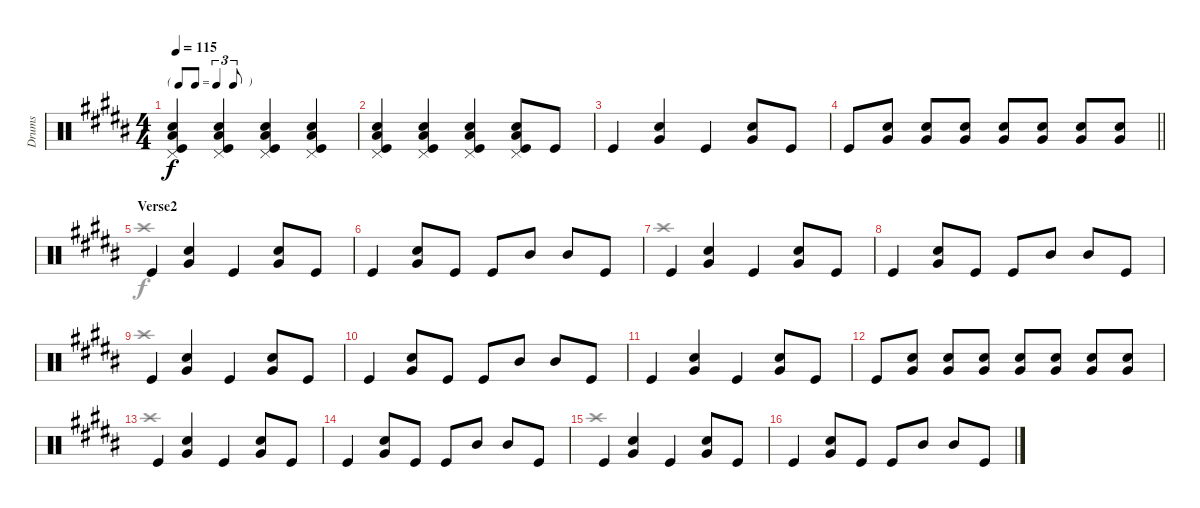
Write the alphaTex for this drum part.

\track ("Drums" "Drums") {instrument percussion}
\staff {score}
\articulation defaults
\voice
\ts (4 4)
\tf triplet8th
\tempo 115
\clef neutral
\ks b
("Snare (hit) 2" "Low Floor Tom (hit)" "Pedal Hi-Hat (hit)" "Kick (hit)").4{dy f} ("Snare (hit) 2" "Low Floor Tom (hit)" "Pedal Hi-Hat (hit)" "Kick (hit)").4 ("Snare (hit) 2" "Low Floor Tom (hit)" "Pedal Hi-Hat (hit)" "Kick (hit)").4 ("Snare (hit) 2" "Low Floor Tom (hit)" "Pedal Hi-Hat (hit)" "Kick (hit)").4 |
("Snare (hit) 2" "Low Floor Tom (hit)" "Pedal Hi-Hat (hit)" "Kick (hit)").4 ("Snare (hit) 2" "Low Floor Tom (hit)" "Pedal Hi-Hat (hit)" "Kick (hit)").4 ("Snare (hit) 2" "Low Floor Tom (hit)" "Pedal Hi-Hat (hit)" "Kick (hit)").4 ("Snare (hit) 2" "Low Floor Tom (hit)" "Pedal Hi-Hat (hit)" "Kick (hit)").8 "Kick (hit)".8 |
"Kick (hit)".4 ("Snare (hit) 2" "Very Low Tom (hit)").4 "Kick (hit)".4 ("Snare (hit) 2" "Very Low Tom (hit)").8 "Kick (hit)".8 |
\barLineRight lightlight "Kick (hit)".8
("Snare (hit) 2" "Very Low Tom (hit)").8 ("Snare (hit) 2" "Very Low Tom (hit)").8 ("Snare (hit) 2" "Very Low Tom (hit)").8 ("Snare (hit) 2" "Very Low Tom (hit)").8 ("Snare (hit) 2" "Very Low Tom (hit)").8 ("Snare (hit) 2" "Very Low Tom (hit)").8 ("Snare (hit) 2" "Very Low Tom (hit)").8 |
\section ("" "Verse2")
"Kick (hit)".4 ("Snare (hit) 2" "Very Low Tom (hit)").4 "Kick (hit)".4 ("Snare (hit) 2" "Very Low Tom (hit)").8 "Kick (hit)".8 |
"Kick (hit)".4 ("Snare (hit) 2" "Very Low Tom (hit)").8 "Kick (hit)".8 "Kick (hit)".8 "Mid Tom (hit)".8 "Mid Tom (hit)".8 "Kick (hit)".8 |
"Kick (hit)".4 ("Snare (hit) 2" "Very Low Tom (hit)").4 "Kick (hit)".4 ("Snare (hit) 2" "Very Low Tom (hit)").8 "Kick (hit)".8 |
"Kick (hit)".4 ("Snare (hit) 2" "Very Low Tom (hit)").8 "Kick (hit)".8 "Kick (hit)".8 "Mid Tom (hit)".8 "Mid Tom (hit)".8 "Kick (hit)".8 |
"Kick (hit)".4 ("Snare (hit) 2" "Very Low Tom (hit)").4 "Kick (hit)".4 ("Snare (hit) 2" "Very Low Tom (hit)").8 "Kick (hit)".8 |
"Kick (hit)".4 ("Snare (hit) 2" "Very Low Tom (hit)").8 "Kick (hit)".8 "Kick (hit)".8 "Mid Tom (hit)".8 "Mid Tom (hit)".8 "Kick (hit)".8 |
"Kick (hit)".4 ("Snare (hit) 2" "Very Low Tom (hit)").4 "Kick (hit)".4 ("Snare (hit) 2" "Very Low Tom (hit)").8 "Kick (hit)".8 |
"Kick (hit)".8 ("Snare (hit) 2" "Very Low Tom (hit)").8 ("Snare (hit) 2" "Very Low Tom (hit)").8 ("Snare (hit) 2" "Very Low Tom (hit)").8 ("Snare (hit) 2" "Very Low Tom (hit)").8 ("Snare (hit) 2" "Very Low Tom (hit)").8 ("Snare (hit) 2" "Very Low Tom (hit)").8 ("Snare (hit) 2" "Very Low Tom (hit)").8 |
"Kick (hit)".4 ("Snare (hit) 2" "Very Low Tom (hit)").4 "Kick (hit)".4 ("Snare (hit) 2" "Very Low Tom (hit)").8 "Kick (hit)".8 |
"Kick (hit)".4 ("Snare (hit) 2" "Very Low Tom (hit)").8 "Kick (hit)".8 "Kick (hit)".8 "Mid Tom (hit)".8 "Mid Tom (hit)".8 "Kick (hit)".8 |
"Kick (hit)".4 ("Snare (hit) 2" "Very Low Tom (hit)").4 "Kick (hit)".4 ("Snare (hit) 2" "Very Low Tom (hit)").8 "Kick (hit)".8 |
"Kick (hit)".4 ("Snare (hit) 2" "Very Low Tom (hit)").8 "Kick (hit)".8 "Kick (hit)".8 "Mid Tom (hit)".8 "Mid Tom (hit)".8 "Kick (hit)".8
\voice
\clef neutral
\ottava regular
\simile none
\ks b
|
|
|
\barLineRight lightlight
|
"Crash high (hit)".1 |
|
"Crash high (hit)".1 |
|
"Crash high (hit)".1 |
|
|
|
"Crash high (hit)".1 |
|
"Crash high (hit)".1 |
